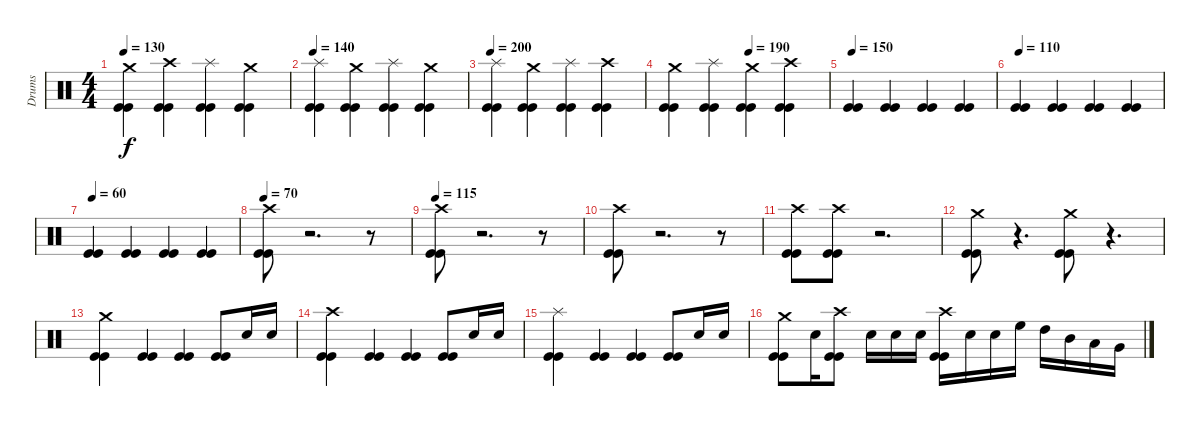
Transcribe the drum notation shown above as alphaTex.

\track ("Drums" "Drums") {instrument percussion}
\staff {score}
\articulation defaults
\ts (4 4)
\tempo 130
\clef neutral
\ks c
("Kick (hit)" "Kick (hit)" "Crash medium (hit)").4{dy f} ("Kick (hit)" "Kick (hit)" "Crash high (hit)").4 ("Kick (hit)" "Kick (hit)" "Splash (hit)").4 ("Kick (hit)" "Kick (hit)" "Crash medium (hit)").4 |
\tempo 140
("Kick (hit)" "Kick (hit)" "Splash (hit)").4 ("Kick (hit)" "Kick (hit)" "Crash medium (hit)").4 ("Kick (hit)" "Kick (hit)" "Splash (hit)").4 ("Kick (hit)" "Kick (hit)" "Crash medium (hit)").4 |
\tempo 200
("Kick (hit)" "Kick (hit)" "Splash (hit)").4 ("Kick (hit)" "Kick (hit)" "Crash medium (hit)").4 ("Kick (hit)" "Kick (hit)" "Splash (hit)").4 ("Kick (hit)" "Kick (hit)" "Crash high (hit)").4 |
\tempo (190 0.5)
("Kick (hit)" "Kick (hit)" "Crash medium (hit)").4 ("Kick (hit)" "Kick (hit)" "Splash (hit)").4 ("Kick (hit)" "Kick (hit)" "Crash medium (hit)").4 ("Kick (hit)" "Kick (hit)" "Crash high (hit)").4 |
\tempo 150
("Kick (hit)" "Kick (hit)").4 ("Kick (hit)" "Kick (hit)").4 ("Kick (hit)" "Kick (hit)").4 ("Kick (hit)" "Kick (hit)").4 |
\tempo 110
("Kick (hit)" "Kick (hit)").4 ("Kick (hit)" "Kick (hit)").4 ("Kick (hit)" "Kick (hit)").4 ("Kick (hit)" "Kick (hit)").4 |
\tempo 60
("Kick (hit)" "Kick (hit)").4 ("Kick (hit)" "Kick (hit)").4 ("Kick (hit)" "Kick (hit)").4 ("Kick (hit)" "Kick (hit)").4 |
\tempo 70
("Kick (hit)" "Kick (hit)" "Crash high (hit)").8 r.2{d} r.8 |
\tempo 115
("Kick (hit)" "Kick (hit)" "Crash high (hit)").8 r.2{d} r.8 |
("Kick (hit)" "Kick (hit)" "Crash high (hit)").8 r.2{d} r.8 |
("Kick (hit)" "Kick (hit)" "Crash high (hit)").8 ("Kick (hit)" "Kick (hit)" "Crash high (hit)").8 r.2{d} |
("Kick (hit)" "Kick (hit)" "Crash medium (hit)").8 r.4{d} ("Kick (hit)" "Kick (hit)" "Crash medium (hit)").8 r.4{d} |
("Kick (hit)" "Kick (hit)" "Crash medium (hit)").4 ("Kick (hit)" "Kick (hit)").4 ("Kick (hit)" "Kick (hit)").4 ("Kick (hit)" "Kick (hit)").8 "Snare (hit) 2".16 "Snare (hit) 2".16 |
("Kick (hit)" "Kick (hit)" "Crash high (hit)").4 ("Kick (hit)" "Kick (hit)").4 ("Kick (hit)" "Kick (hit)").4 ("Kick (hit)" "Kick (hit)").8 "Snare (hit) 2".16 "Snare (hit) 2".16 |
("Kick (hit)" "Kick (hit)" "Splash (hit)").4 ("Kick (hit)" "Kick (hit)").4 ("Kick (hit)" "Kick (hit)").4 ("Kick (hit)" "Kick (hit)").8 "Snare (hit) 2".16 "Snare (hit) 2".16 |
("Kick (hit)" "Kick (hit)" "Crash medium (hit)").8 "Snare (hit) 2".16 ("Kick (hit)" "Kick (hit)" "Crash high (hit)").8 "Snare (hit) 2".16 "Snare (hit) 2".16 "Snare (hit) 2".16 ("Kick (hit)" "Kick (hit)" "Crash high (hit)").16 "Snare (hit) 2".16 "Snare (hit) 2".16 "High Floor Tom (hit)".16 "High Tom (hit)".16 "Mid Tom (hit)".16 "Low Tom (hit)".16 "Very Low Tom (hit)".16
